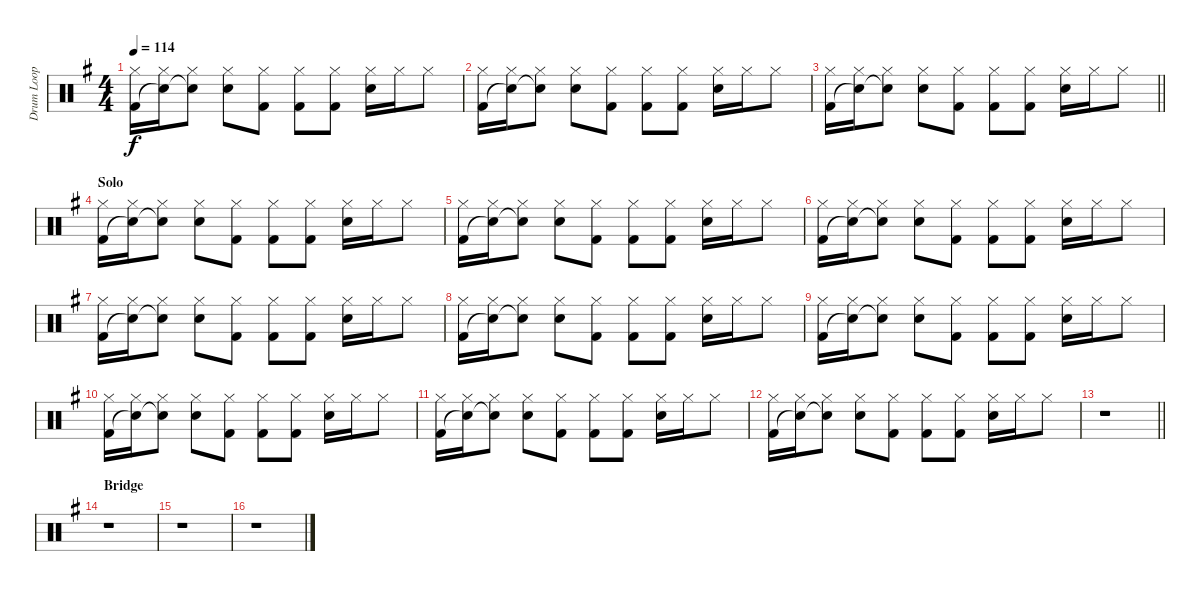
\track ("Drum Loop" "Drum Loop") {instrument percussion}
\staff {score}
\articulation defaults
\ts (4 4)
\tempo 114
\clef neutral
\ks eminor
("Hi-Hat (closed)" "Kick (hit) 2").16{dy f} ("Hi-Hat (closed)" "Snare (hit)"{t}).16 ("Hi-Hat (closed)" "Snare (hit)"{t}).8 ("Hi-Hat (closed)" "Electric Snare (hit)").8 ("Hi-Hat (closed)" "Kick (hit) 2").8 ("Hi-Hat (closed)" "Kick (hit) 2").8 ("Hi-Hat (closed)" "Kick (hit) 2").8 ("Hi-Hat (closed)" "Electric Snare (hit)").16 "Hi-Hat (closed)".16 "Hi-Hat (closed)".8 |
("Hi-Hat (closed)" "Kick (hit) 2").16 ("Hi-Hat (closed)" "Snare (hit)"{t}).16 ("Hi-Hat (closed)" "Snare (hit)"{t}).8 ("Hi-Hat (closed)" "Electric Snare (hit)").8 ("Hi-Hat (closed)" "Kick (hit) 2").8 ("Hi-Hat (closed)" "Kick (hit) 2").8 ("Hi-Hat (closed)" "Kick (hit) 2").8 ("Hi-Hat (closed)" "Electric Snare (hit)").16 "Hi-Hat (closed)".16 "Hi-Hat (closed)".8 |
\barLineRight lightlight
("Hi-Hat (closed)" "Kick (hit) 2").16 ("Hi-Hat (closed)" "Snare (hit)"{t}).16 ("Hi-Hat (closed)" "Snare (hit)"{t}).8 ("Hi-Hat (closed)" "Electric Snare (hit)").8 ("Hi-Hat (closed)" "Kick (hit) 2").8 ("Hi-Hat (closed)" "Kick (hit) 2").8 ("Hi-Hat (closed)" "Kick (hit) 2").8 ("Hi-Hat (closed)" "Electric Snare (hit)").16 "Hi-Hat (closed)".16 "Hi-Hat (closed)".8 |
\section ("" "Solo")
("Hi-Hat (closed)" "Kick (hit) 2").16 ("Hi-Hat (closed)" "Snare (hit)"{t}).16 ("Hi-Hat (closed)" "Snare (hit)"{t}).8 ("Hi-Hat (closed)" "Electric Snare (hit)").8 ("Hi-Hat (closed)" "Kick (hit) 2").8 ("Hi-Hat (closed)" "Kick (hit) 2").8 ("Hi-Hat (closed)" "Kick (hit) 2").8 ("Hi-Hat (closed)" "Electric Snare (hit)").16 "Hi-Hat (closed)".16 "Hi-Hat (closed)".8 |
("Hi-Hat (closed)" "Kick (hit) 2").16 ("Hi-Hat (closed)" "Snare (hit)"{t}).16 ("Hi-Hat (closed)" "Snare (hit)"{t}).8 ("Hi-Hat (closed)" "Electric Snare (hit)").8 ("Hi-Hat (closed)" "Kick (hit) 2").8 ("Hi-Hat (closed)" "Kick (hit) 2").8 ("Hi-Hat (closed)" "Kick (hit) 2").8 ("Hi-Hat (closed)" "Electric Snare (hit)").16 "Hi-Hat (closed)".16 "Hi-Hat (closed)".8 |
("Hi-Hat (closed)" "Kick (hit) 2").16 ("Hi-Hat (closed)" "Snare (hit)"{t}).16 ("Hi-Hat (closed)" "Snare (hit)"{t}).8 ("Hi-Hat (closed)" "Electric Snare (hit)").8 ("Hi-Hat (closed)" "Kick (hit) 2").8 ("Hi-Hat (closed)" "Kick (hit) 2").8 ("Hi-Hat (closed)" "Kick (hit) 2").8 ("Hi-Hat (closed)" "Electric Snare (hit)").16 "Hi-Hat (closed)".16 "Hi-Hat (closed)".8 |
("Hi-Hat (closed)" "Kick (hit) 2").16 ("Hi-Hat (closed)" "Snare (hit)"{t}).16 ("Hi-Hat (closed)" "Snare (hit)"{t}).8 ("Hi-Hat (closed)" "Electric Snare (hit)").8 ("Hi-Hat (closed)" "Kick (hit) 2").8 ("Hi-Hat (closed)" "Kick (hit) 2").8 ("Hi-Hat (closed)" "Kick (hit) 2").8 ("Hi-Hat (closed)" "Electric Snare (hit)").16 "Hi-Hat (closed)".16 "Hi-Hat (closed)".8 |
("Hi-Hat (closed)" "Kick (hit) 2").16 ("Hi-Hat (closed)" "Snare (hit)"{t}).16 ("Hi-Hat (closed)" "Snare (hit)"{t}).8 ("Hi-Hat (closed)" "Electric Snare (hit)").8 ("Hi-Hat (closed)" "Kick (hit) 2").8 ("Hi-Hat (closed)" "Kick (hit) 2").8 ("Hi-Hat (closed)" "Kick (hit) 2").8 ("Hi-Hat (closed)" "Electric Snare (hit)").16 "Hi-Hat (closed)".16 "Hi-Hat (closed)".8 |
("Hi-Hat (closed)" "Kick (hit) 2").16 ("Hi-Hat (closed)" "Snare (hit)"{t}).16 ("Hi-Hat (closed)" "Snare (hit)"{t}).8 ("Hi-Hat (closed)" "Electric Snare (hit)").8 ("Hi-Hat (closed)" "Kick (hit) 2").8 ("Hi-Hat (closed)" "Kick (hit) 2").8 ("Hi-Hat (closed)" "Kick (hit) 2").8 ("Hi-Hat (closed)" "Electric Snare (hit)").16 "Hi-Hat (closed)".16 "Hi-Hat (closed)".8 |
("Hi-Hat (closed)" "Kick (hit) 2").16 ("Hi-Hat (closed)" "Snare (hit)"{t}).16 ("Hi-Hat (closed)" "Snare (hit)"{t}).8 ("Hi-Hat (closed)" "Electric Snare (hit)").8 ("Hi-Hat (closed)" "Kick (hit) 2").8 ("Hi-Hat (closed)" "Kick (hit) 2").8 ("Hi-Hat (closed)" "Kick (hit) 2").8 ("Hi-Hat (closed)" "Electric Snare (hit)").16 "Hi-Hat (closed)".16 "Hi-Hat (closed)".8 |
("Hi-Hat (closed)" "Kick (hit) 2").16 ("Hi-Hat (closed)" "Snare (hit)"{t}).16 ("Hi-Hat (closed)" "Snare (hit)"{t}).8 ("Hi-Hat (closed)" "Electric Snare (hit)").8 ("Hi-Hat (closed)" "Kick (hit) 2").8 ("Hi-Hat (closed)" "Kick (hit) 2").8 ("Hi-Hat (closed)" "Kick (hit) 2").8 ("Hi-Hat (closed)" "Electric Snare (hit)").16 "Hi-Hat (closed)".16 "Hi-Hat (closed)".8 |
("Hi-Hat (closed)" "Kick (hit) 2").16 ("Hi-Hat (closed)" "Snare (hit)"{t}).16 ("Hi-Hat (closed)" "Snare (hit)"{t}).8 ("Hi-Hat (closed)" "Electric Snare (hit)").8 ("Hi-Hat (closed)" "Kick (hit) 2").8 ("Hi-Hat (closed)" "Kick (hit) 2").8 ("Hi-Hat (closed)" "Kick (hit) 2").8 ("Hi-Hat (closed)" "Electric Snare (hit)").16 "Hi-Hat (closed)".16 "Hi-Hat (closed)".8 |
\barLineRight lightlight
r.1 |
\section ("" "Bridge")
r.1 |
r.1 |
r.1
